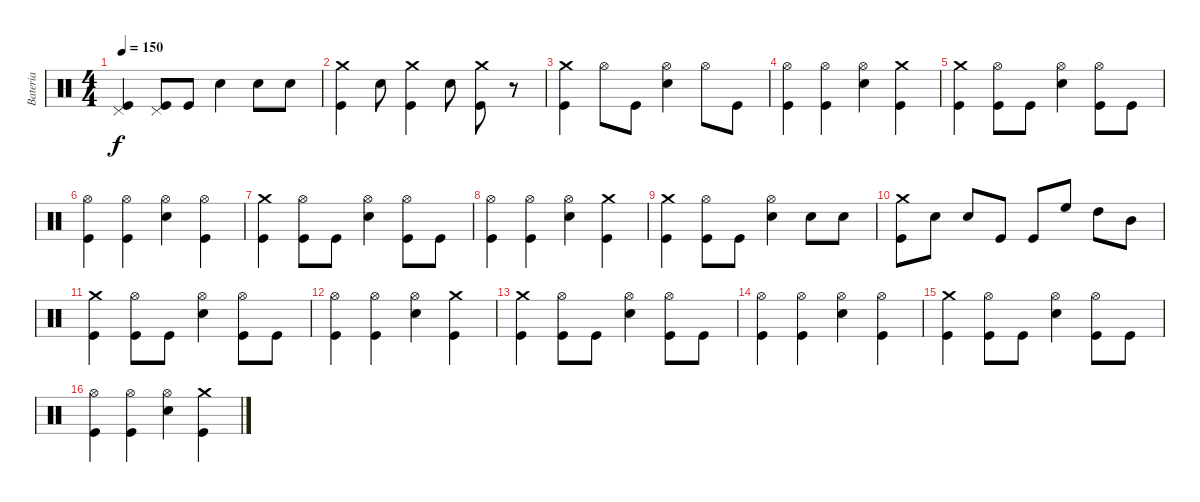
\track ("Bateria" "Bateria") {instrument percussion}
\staff {score}
\articulation defaults
\ts (4 4)
\tempo 150
\clef neutral
\ks c
("Pedal Hi-Hat (hit)" "Kick (hit)").4{dy f} ("Pedal Hi-Hat (hit)" "Kick (hit)").8 "Kick (hit)".8 "Snare (hit) 2".4 "Snare (hit) 2".8 "Snare (hit) 2".8 |
("Crash medium (hit)" "Kick (hit)").4 "Snare (hit) 2".8 ("Crash medium (hit)" "Kick (hit)").4 "Snare (hit) 2".8 ("Crash medium (hit)" "Kick (hit)").8 r.8 |
("Crash medium (hit)" "Kick (hit)").4 "Hi-Hat (open)".8 "Kick (hit)".8 ("Hi-Hat (open)" "Snare (hit) 2").4 "Hi-Hat (open)".8 "Kick (hit)".8 |
("Hi-Hat (open)" "Kick (hit)").4 ("Hi-Hat (open)" "Kick (hit)").4 ("Hi-Hat (open)" "Snare (hit) 2").4 ("Crash medium (hit)" "Kick (hit)").4 |
("Crash medium (hit)" "Kick (hit)").4 ("Hi-Hat (open)" "Kick (hit)").8 "Kick (hit)".8 ("Hi-Hat (open)" "Snare (hit) 2").4 ("Hi-Hat (open)" "Kick (hit)").8 "Kick (hit)".8 |
("Hi-Hat (open)" "Kick (hit)").4 ("Hi-Hat (open)" "Kick (hit)").4 ("Hi-Hat (open)" "Snare (hit) 2").4 ("Hi-Hat (open)" "Kick (hit)").4 |
("Crash medium (hit)" "Kick (hit)").4 ("Hi-Hat (open)" "Kick (hit)").8 "Kick (hit)".8 ("Hi-Hat (open)" "Snare (hit) 2").4 ("Hi-Hat (open)" "Kick (hit)").8 "Kick (hit)".8 |
("Hi-Hat (open)" "Kick (hit)").4 ("Hi-Hat (open)" "Kick (hit)").4 ("Hi-Hat (open)" "Snare (hit) 2").4 ("Crash medium (hit)" "Kick (hit)").4 |
("Crash medium (hit)" "Kick (hit)").4 ("Hi-Hat (open)" "Kick (hit)").8 "Kick (hit)".8 ("Hi-Hat (open)" "Snare (hit) 2").4 "Snare (hit) 2".8 "Snare (hit) 2".8 |
("Crash medium (hit)" "Kick (hit)").8 "Snare (hit) 2".8 "Snare (hit) 2".8 "Kick (hit)".8 "Kick (hit)".8 "High Floor Tom (hit)".8 "High Tom (hit)".8 "Mid Tom (hit)".8 |
("Crash medium (hit)" "Kick (hit)").4 ("Hi-Hat (open)" "Kick (hit)").8 "Kick (hit)".8 ("Hi-Hat (open)" "Snare (hit) 2").4 ("Hi-Hat (open)" "Kick (hit)").8 "Kick (hit)".8 |
("Hi-Hat (open)" "Kick (hit)").4 ("Hi-Hat (open)" "Kick (hit)").4 ("Hi-Hat (open)" "Snare (hit) 2").4 ("Crash medium (hit)" "Kick (hit)").4 |
("Crash medium (hit)" "Kick (hit)").4 ("Hi-Hat (open)" "Kick (hit)").8 "Kick (hit)".8 ("Hi-Hat (open)" "Snare (hit) 2").4 ("Hi-Hat (open)" "Kick (hit)").8 "Kick (hit)".8 |
("Hi-Hat (open)" "Kick (hit)").4 ("Hi-Hat (open)" "Kick (hit)").4 ("Hi-Hat (open)" "Snare (hit) 2").4 ("Hi-Hat (open)" "Kick (hit)").4 |
("Crash medium (hit)" "Kick (hit)").4 ("Hi-Hat (open)" "Kick (hit)").8 "Kick (hit)".8 ("Hi-Hat (open)" "Snare (hit) 2").4 ("Hi-Hat (open)" "Kick (hit)").8 "Kick (hit)".8 |
("Hi-Hat (open)" "Kick (hit)").4 ("Hi-Hat (open)" "Kick (hit)").4 ("Hi-Hat (open)" "Snare (hit) 2").4 ("Crash medium (hit)" "Kick (hit)").4
